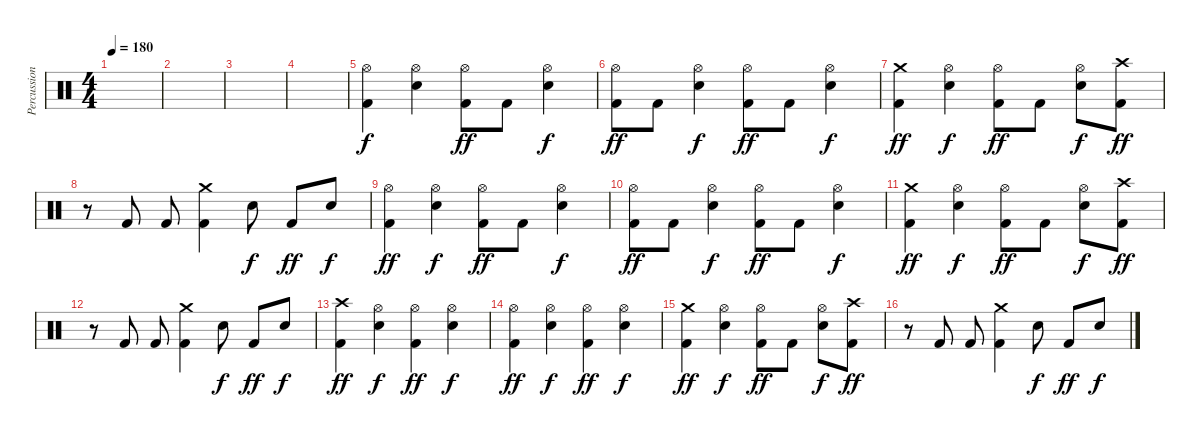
\track ("Percussion" "Percussion") {instrument percussion}
\staff {score}
\articulation defaults
\ts (4 4)
\tempo 180
\clef neutral
\ks c
|
|
|
|
("Hi-Hat (open)" "Kick (hit) 2").4 ("Hi-Hat (open)" "Electric Snare (hit)").4{dy f} ("Hi-Hat (open)" "Kick (hit) 2").8{dy ff} "Kick (hit) 2".8 ("Hi-Hat (open)" "Electric Snare (hit)").4{dy f} |
("Hi-Hat (open)" "Kick (hit) 2").8{dy ff} "Kick (hit) 2".8 ("Hi-Hat (open)" "Electric Snare (hit)").4{dy f} ("Hi-Hat (open)" "Kick (hit) 2").8{dy ff} "Kick (hit) 2".8 ("Hi-Hat (open)" "Electric Snare (hit)").4{dy f} |
("Crash medium (hit)" "Kick (hit) 2").4{dy ff} ("Hi-Hat (open)" "Electric Snare (hit)").4{dy f} ("Hi-Hat (open)" "Kick (hit) 2").8{dy ff} "Kick (hit) 2".8 ("Hi-Hat (open)" "Electric Snare (hit)").8{dy f} ("Crash high (hit)" "Kick (hit) 2").8{dy ff} |
r.8 "Kick (hit) 2".8 "Kick (hit) 2".8 ("Crash medium (hit)" "Kick (hit) 2").4 "Electric Snare (hit)".8{dy f} "Kick (hit) 2".8{dy ff} "Electric Snare (hit)".8{dy f} |
("Hi-Hat (open)" "Kick (hit) 2").4{dy ff} ("Hi-Hat (open)" "Electric Snare (hit)").4{dy f} ("Hi-Hat (open)" "Kick (hit) 2").8{dy ff} "Kick (hit) 2".8 ("Hi-Hat (open)" "Electric Snare (hit)").4{dy f} |
("Hi-Hat (open)" "Kick (hit) 2").8{dy ff} "Kick (hit) 2".8 ("Hi-Hat (open)" "Electric Snare (hit)").4{dy f} ("Hi-Hat (open)" "Kick (hit) 2").8{dy ff} "Kick (hit) 2".8 ("Hi-Hat (open)" "Electric Snare (hit)").4{dy f} |
("Crash medium (hit)" "Kick (hit) 2").4{dy ff} ("Hi-Hat (open)" "Electric Snare (hit)").4{dy f} ("Hi-Hat (open)" "Kick (hit) 2").8{dy ff} "Kick (hit) 2".8 ("Hi-Hat (open)" "Electric Snare (hit)").8{dy f} ("Crash high (hit)" "Kick (hit) 2").8{dy ff} |
r.8 "Kick (hit) 2".8 "Kick (hit) 2".8 ("Crash medium (hit)" "Kick (hit) 2").4 "Electric Snare (hit)".8{dy f} "Kick (hit) 2".8{dy ff} "Electric Snare (hit)".8{dy f} |
("Crash high (hit)" "Kick (hit) 2").4{dy ff} ("Hi-Hat (open)" "Electric Snare (hit)").4{dy f} ("Hi-Hat (open)" "Kick (hit) 2").4{dy ff} ("Hi-Hat (open)" "Electric Snare (hit)").4{dy f} |
("Hi-Hat (open)" "Kick (hit) 2").4{dy ff} ("Hi-Hat (open)" "Electric Snare (hit)").4{dy f} ("Hi-Hat (open)" "Kick (hit) 2").4{dy ff} ("Hi-Hat (open)" "Electric Snare (hit)").4{dy f} |
("Crash medium (hit)" "Kick (hit) 2").4{dy ff} ("Hi-Hat (open)" "Electric Snare (hit)").4{dy f} ("Hi-Hat (open)" "Kick (hit) 2").8{dy ff} "Kick (hit) 2".8 ("Hi-Hat (open)" "Electric Snare (hit)").8{dy f} ("Crash high (hit)" "Kick (hit) 2").8{dy ff} |
r.8 "Kick (hit) 2".8 "Kick (hit) 2".8 ("Crash medium (hit)" "Kick (hit) 2").4 "Electric Snare (hit)".8{dy f} "Kick (hit) 2".8{dy ff} "Electric Snare (hit)".8{dy f}
